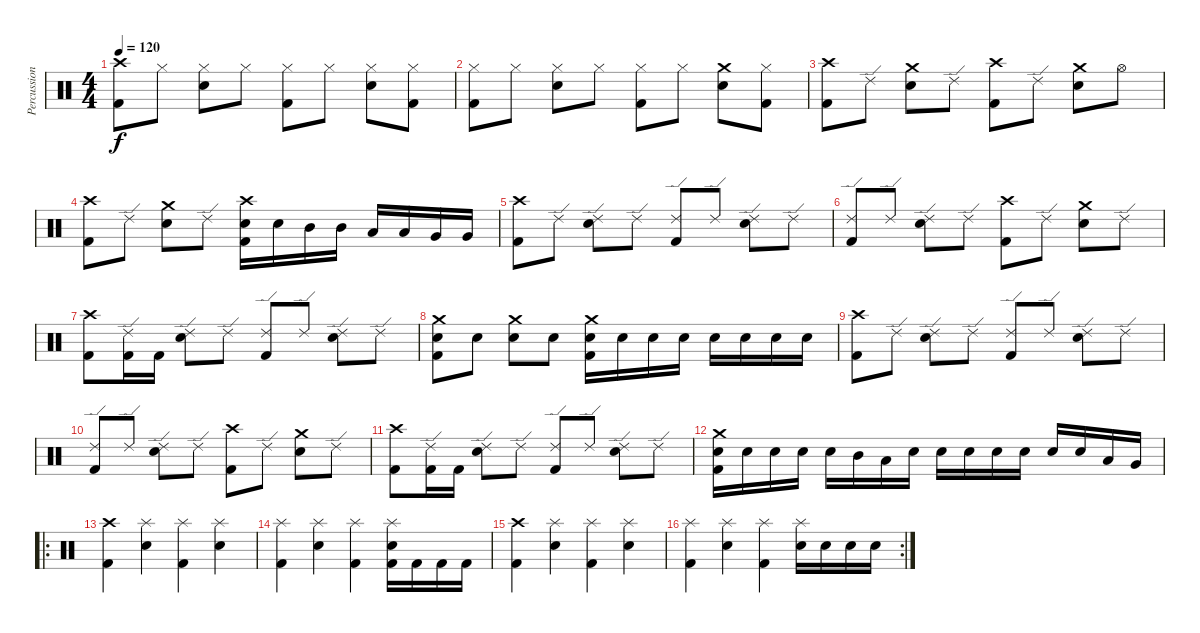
\track ("Percussion" "Percussion") {instrument percussion}
\staff {score}
\articulation defaults
\ts (4 4)
\tempo 120
\clef neutral
\ks c
("Crash high (hit)" "Kick (hit) 2").8{dy f} "Hi-Hat (closed)".8 ("Hi-Hat (closed)" "Electric Snare (hit)").8 "Hi-Hat (closed)".8 ("Hi-Hat (closed)" "Kick (hit) 2").8 "Hi-Hat (closed)".8 ("Hi-Hat (closed)" "Electric Snare (hit)").8 ("Hi-Hat (closed)" "Kick (hit) 2").8 |
("Hi-Hat (closed)" "Kick (hit) 2").8 "Hi-Hat (closed)".8 ("Hi-Hat (closed)" "Electric Snare (hit)").8 "Hi-Hat (closed)".8 ("Hi-Hat (closed)" "Kick (hit) 2").8 "Hi-Hat (closed)".8 ("Crash medium (hit)" "Electric Snare (hit)").8 ("Hi-Hat (closed)" "Kick (hit) 2").8 |
("Crash high (hit)" "Kick (hit) 2").8 "Ride (edge) 2".8 ("Crash medium (hit)" "Electric Snare (hit)").8 "Ride (edge) 2".8 ("Crash high (hit)" "Kick (hit) 2").8 "Ride (edge) 2".8 ("Crash medium (hit)" "Electric Snare (hit)").8 "Hi-Hat (open)".8 |
("Crash high (hit)" "Kick (hit) 2").8 "Ride (edge) 2".8 ("Crash medium (hit)" "Electric Snare (hit)").8 "Ride (edge) 2".8 ("Crash high (hit)" "Electric Snare (hit)" "Kick (hit) 2").16 "Electric Snare (hit)".16 "Mid Tom (hit)".16 "Mid Tom (hit)".16 "Low Tom (hit)".16 "Low Tom (hit)".16 "Very Low Tom (hit)".16 "Very Low Tom (hit)".16 |
("Crash high (hit)" "Kick (hit) 2").8 "Ride (edge) 2".8 ("Ride (edge) 2" "Electric Snare (hit)").8 "Ride (edge) 2".8 ("Ride (edge) 2" "Kick (hit) 2").8 "Ride (edge) 2".8 ("Ride (edge) 2" "Electric Snare (hit)").8 "Ride (edge) 2".8 |
("Ride (edge) 2" "Kick (hit) 2").8 "Ride (edge) 2".8 ("Ride (edge) 2" "Electric Snare (hit)").8 "Ride (edge) 2".8 ("Crash high (hit)" "Kick (hit) 2").8 "Ride (edge) 2".8 ("Crash medium (hit)" "Electric Snare (hit)").8 "Ride (edge) 2".8 |
("Crash high (hit)" "Kick (hit) 2").8 ("Ride (edge) 2" "Kick (hit) 2").16 "Kick (hit) 2".16 ("Ride (edge) 2" "Electric Snare (hit)").8 "Ride (edge) 2".8 ("Ride (edge) 2" "Kick (hit) 2").8 "Ride (edge) 2".8 ("Ride (edge) 2" "Electric Snare (hit)").8 "Ride (edge) 2".8 |
("Crash medium (hit)" "Electric Snare (hit)" "Kick (hit) 2").8 "Electric Snare (hit)".8 ("Crash medium (hit)" "Electric Snare (hit)").8 "Electric Snare (hit)".8 ("Crash medium (hit)" "Electric Snare (hit)" "Kick (hit) 2").16 "Electric Snare (hit)".16 "Electric Snare (hit)".16 "Electric Snare (hit)".16 "Electric Snare (hit)".16 "Electric Snare (hit)".16 "Electric Snare (hit)".16 "Electric Snare (hit)".16 |
("Crash high (hit)" "Kick (hit) 2").8 "Ride (edge) 2".8 ("Ride (edge) 2" "Electric Snare (hit)").8 "Ride (edge) 2".8 ("Ride (edge) 2" "Kick (hit) 2").8 "Ride (edge) 2".8 ("Ride (edge) 2" "Electric Snare (hit)").8 "Ride (edge) 2".8 |
("Ride (edge) 2" "Kick (hit) 2").8 "Ride (edge) 2".8 ("Ride (edge) 2" "Electric Snare (hit)").8 "Ride (edge) 2".8 ("Crash high (hit)" "Kick (hit) 2").8 "Ride (edge) 2".8 ("Crash medium (hit)" "Electric Snare (hit)").8 "Ride (edge) 2".8 |
("Crash high (hit)" "Kick (hit) 2").8 ("Ride (edge) 2" "Kick (hit) 2").16 "Kick (hit) 2".16 ("Ride (edge) 2" "Electric Snare (hit)").8 "Ride (edge) 2".8 ("Ride (edge) 2" "Kick (hit) 2").8 "Ride (edge) 2".8 ("Ride (edge) 2" "Electric Snare (hit)").8 "Ride (edge) 2".8 |
("Crash medium (hit)" "Electric Snare (hit)" "Kick (hit) 2").16 "Electric Snare (hit)".16 "Electric Snare (hit)".16 "Electric Snare (hit)".16 "Electric Snare (hit)".16 "Mid Tom (hit)".16 "Low Tom (hit)".16 "Electric Snare (hit)".16 "Electric Snare (hit)".16 "Electric Snare (hit)".16 "Electric Snare (hit)".16 "Electric Snare (hit)".16 "Electric Snare (hit)".16 "Electric Snare (hit)".16 "Low Tom (hit)".16 "Very Low Tom (hit)".16 |
\ro
("Crash high (hit)" "Kick (hit) 2").4 ("Splash (hit)" "Electric Snare (hit)").4 ("Splash (hit)" "Kick (hit) 2").4 ("Splash (hit)" "Electric Snare (hit)").4 |
("Splash (hit)" "Kick (hit) 2").4 ("Splash (hit)" "Electric Snare (hit)").4 ("Splash (hit)" "Kick (hit) 2").4 ("Splash (hit)" "Electric Snare (hit)" "Kick (hit) 2").16 "Kick (hit) 2".16 "Kick (hit) 2".16 "Kick (hit) 2".16 |
("Crash high (hit)" "Kick (hit) 2").4 ("Splash (hit)" "Electric Snare (hit)").4 ("Splash (hit)" "Kick (hit) 2").4 ("Splash (hit)" "Electric Snare (hit)").4 |
\rc 2
("Splash (hit)" "Kick (hit) 2").4 ("Splash (hit)" "Electric Snare (hit)").4 ("Splash (hit)" "Kick (hit) 2").4 ("Splash (hit)" "Electric Snare (hit)").16 "Electric Snare (hit)".16 "Electric Snare (hit)".16 "Electric Snare (hit)".16
